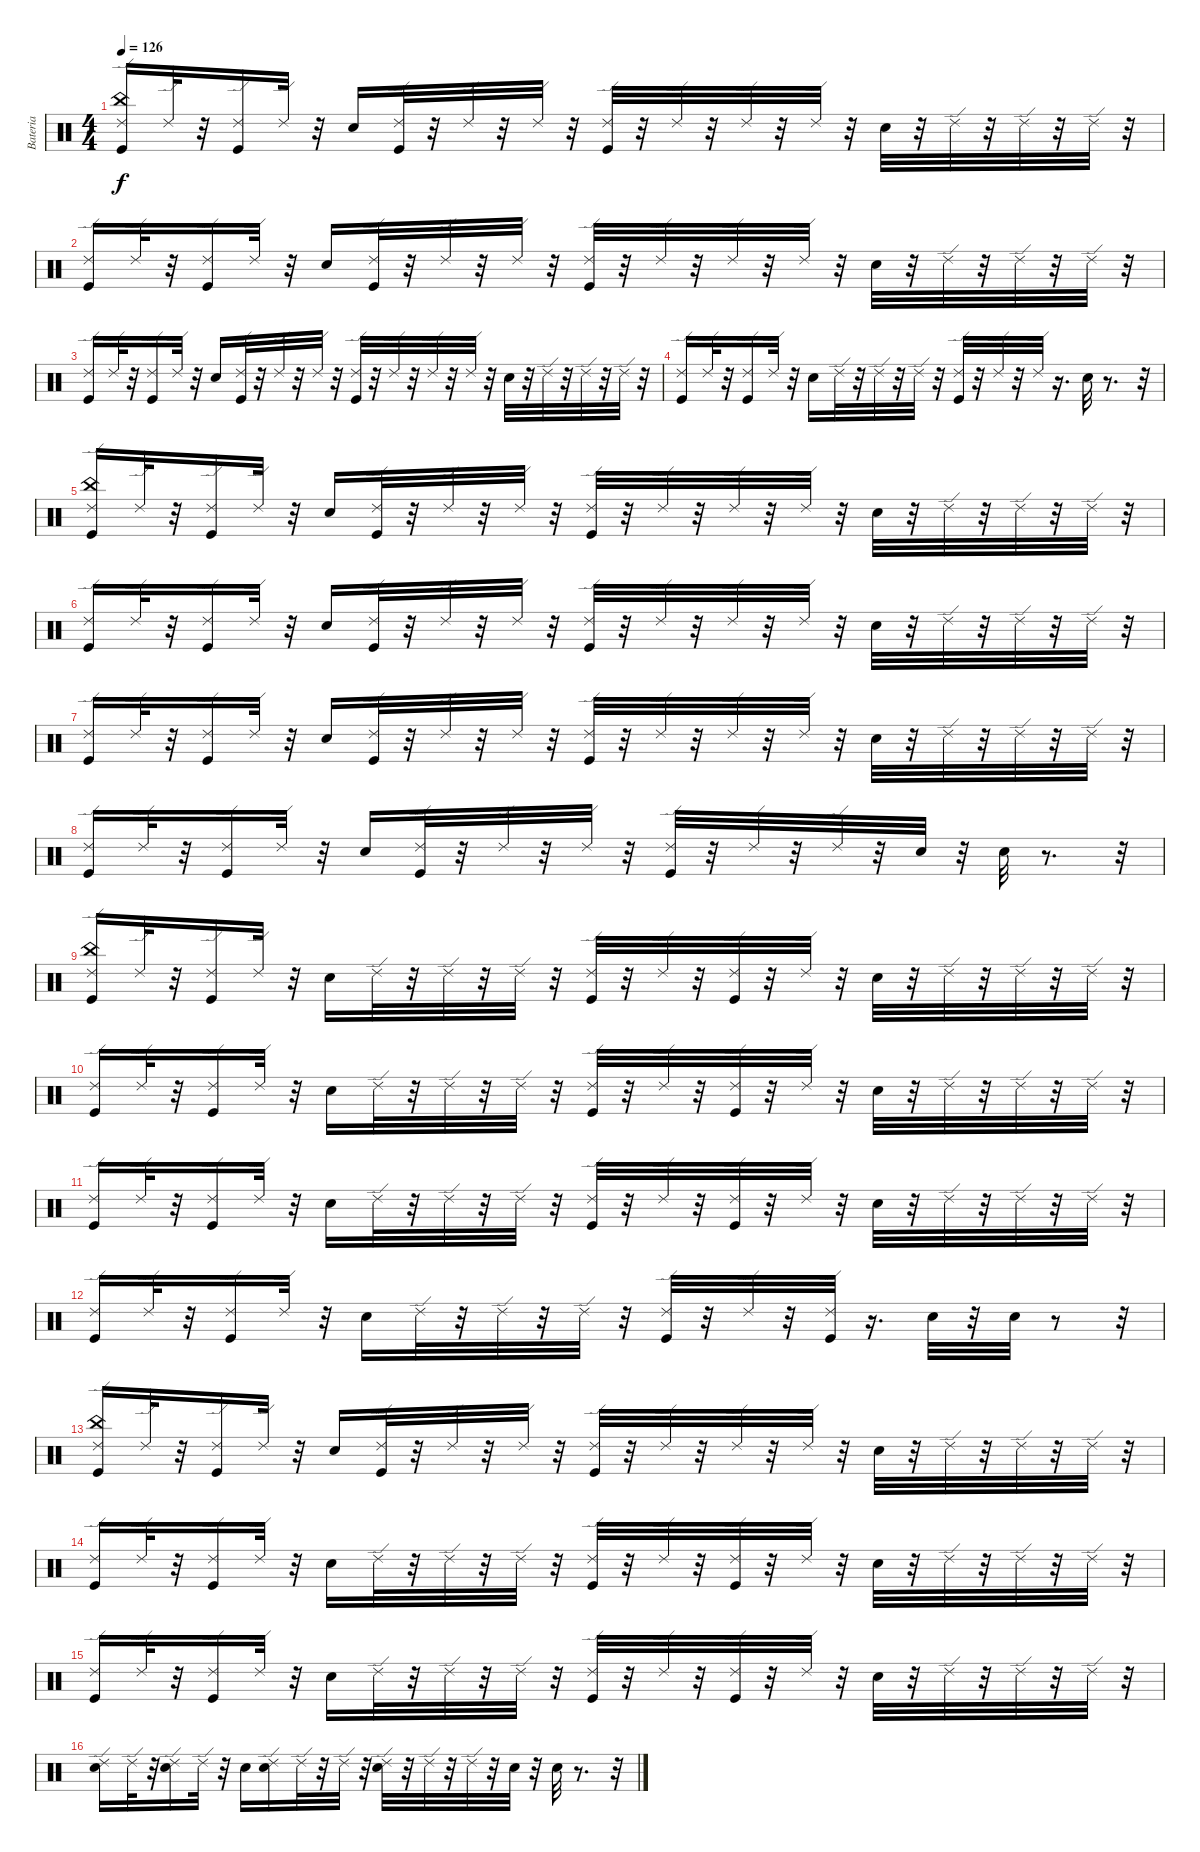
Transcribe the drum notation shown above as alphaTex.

\track ("Bateria" "Bateria") {instrument percussion}
\staff {score}
\articulation defaults
\ts (4 4)
\tempo 126
\clef neutral
\ks c
("Ride (edge) 2" "China (hit)" "Kick (hit)").16{dy f} "Ride (edge) 2".32 r.32 ("Ride (edge) 2" "Kick (hit)").16 "Ride (edge) 2".32 r.32 "Snare (hit) 2".16 ("Kick (hit)" "Ride (edge) 2").32 r.32 "Ride (edge) 2".32 r.32 "Ride (edge) 2".32 r.32 ("Kick (hit)" "Ride (edge) 2").32 r.32 "Ride (edge) 2".32 r.32 "Ride (edge) 2".32 r.32 "Ride (edge) 2".32 r.32 "Snare (hit) 2".32 r.32 "Ride (edge) 2".32 r.32 "Ride (edge) 2".32 r.32 "Ride (edge) 2".32 r.32 |
("Ride (edge) 2" "Kick (hit)").16 "Ride (edge) 2".32 r.32 ("Kick (hit)" "Ride (edge) 2").16 "Ride (edge) 2".32 r.32 "Snare (hit) 2".16 ("Ride (edge) 2" "Kick (hit)").32 r.32 "Ride (edge) 2".32 r.32 "Ride (edge) 2".32 r.32 ("Kick (hit)" "Ride (edge) 2").32 r.32 "Ride (edge) 2".32 r.32 "Ride (edge) 2".32 r.32 "Ride (edge) 2".32 r.32 "Snare (hit) 2".32 r.32 "Ride (edge) 2".32 r.32 "Ride (edge) 2".32 r.32 "Ride (edge) 2".32 r.32 |
("Kick (hit)" "Ride (edge) 2").16 "Ride (edge) 2".32 r.32 ("Kick (hit)" "Ride (edge) 2").16 "Ride (edge) 2".32 r.32 "Snare (hit) 2".16 ("Ride (edge) 2" "Kick (hit)").32 r.32 "Ride (edge) 2".32 r.32 "Ride (edge) 2".32 r.32 ("Ride (edge) 2" "Kick (hit)").32 r.32 "Ride (edge) 2".32 r.32 "Ride (edge) 2".32 r.32 "Ride (edge) 2".32 r.32 "Snare (hit) 2".32 r.32 "Ride (edge) 2".32 r.32 "Ride (edge) 2".32 r.32 "Ride (edge) 2".32 r.32 |
("Kick (hit)" "Ride (edge) 2").16 "Ride (edge) 2".32 r.32 ("Kick (hit)" "Ride (edge) 2").16 "Ride (edge) 2".32 r.32 "Snare (hit) 2".16 "Ride (edge) 2".32 r.32 "Ride (edge) 2".32 r.32 "Ride (edge) 2".32 r.32 ("Kick (hit)" "Ride (edge) 2").32 r.32 "Ride (edge) 2".32 r.32 "Ride (edge) 2".32 r.16{d} "Snare (hit) 2".32 r.8{d} r.32 |
("Ride (edge) 2" "China (hit)" "Kick (hit)").16 "Ride (edge) 2".32 r.32 ("Ride (edge) 2" "Kick (hit)").16 "Ride (edge) 2".32 r.32 "Snare (hit) 2".16 ("Kick (hit)" "Ride (edge) 2").32 r.32 "Ride (edge) 2".32 r.32 "Ride (edge) 2".32 r.32 ("Kick (hit)" "Ride (edge) 2").32 r.32 "Ride (edge) 2".32 r.32 "Ride (edge) 2".32 r.32 "Ride (edge) 2".32 r.32 "Snare (hit) 2".32 r.32 "Ride (edge) 2".32 r.32 "Ride (edge) 2".32 r.32 "Ride (edge) 2".32 r.32 |
("Ride (edge) 2" "Kick (hit)").16 "Ride (edge) 2".32 r.32 ("Kick (hit)" "Ride (edge) 2").16 "Ride (edge) 2".32 r.32 "Snare (hit) 2".16 ("Ride (edge) 2" "Kick (hit)").32 r.32 "Ride (edge) 2".32 r.32 "Ride (edge) 2".32 r.32 ("Kick (hit)" "Ride (edge) 2").32 r.32 "Ride (edge) 2".32 r.32 "Ride (edge) 2".32 r.32 "Ride (edge) 2".32 r.32 "Snare (hit) 2".32 r.32 "Ride (edge) 2".32 r.32 "Ride (edge) 2".32 r.32 "Ride (edge) 2".32 r.32 |
("Kick (hit)" "Ride (edge) 2").16 "Ride (edge) 2".32 r.32 ("Kick (hit)" "Ride (edge) 2").16 "Ride (edge) 2".32 r.32 "Snare (hit) 2".16 ("Ride (edge) 2" "Kick (hit)").32 r.32 "Ride (edge) 2".32 r.32 "Ride (edge) 2".32 r.32 ("Ride (edge) 2" "Kick (hit)").32 r.32 "Ride (edge) 2".32 r.32 "Ride (edge) 2".32 r.32 "Ride (edge) 2".32 r.32 "Snare (hit) 2".32 r.32 "Ride (edge) 2".32 r.32 "Ride (edge) 2".32 r.32 "Ride (edge) 2".32 r.32 |
("Kick (hit)" "Ride (edge) 2").16 "Ride (edge) 2".32 r.32 ("Kick (hit)" "Ride (edge) 2").16 "Ride (edge) 2".32 r.32 "Snare (hit) 2".16 ("Kick (hit)" "Ride (edge) 2").32 r.32 "Ride (edge) 2".32 r.32 "Ride (edge) 2".32 r.32 ("Kick (hit)" "Ride (edge) 2").32 r.32 "Ride (edge) 2".32 r.32 "Ride (edge) 2".32 r.32 "Snare (hit) 2".32 r.32 "Snare (hit) 2".32 r.8{d} r.32 |
("Ride (edge) 2" "China (hit)" "Kick (hit)").16 "Ride (edge) 2".32 r.32 ("Ride (edge) 2" "Kick (hit)").16 "Ride (edge) 2".32 r.32 "Snare (hit) 2".16 "Ride (edge) 2".32 r.32 "Ride (edge) 2".32 r.32 "Ride (edge) 2".32 r.32 ("Kick (hit)" "Ride (edge) 2").32 r.32 "Ride (edge) 2".32 r.32 ("Kick (hit)" "Ride (edge) 2").32 r.32 "Ride (edge) 2".32 r.32 "Snare (hit) 2".32 r.32 "Ride (edge) 2".32 r.32 "Ride (edge) 2".32 r.32 "Ride (edge) 2".32 r.32 |
("Ride (edge) 2" "Kick (hit)").16 "Ride (edge) 2".32 r.32 ("Kick (hit)" "Ride (edge) 2").16 "Ride (edge) 2".32 r.32 "Snare (hit) 2".16 "Ride (edge) 2".32 r.32 "Ride (edge) 2".32 r.32 "Ride (edge) 2".32 r.32 ("Kick (hit)" "Ride (edge) 2").32 r.32 "Ride (edge) 2".32 r.32 ("Kick (hit)" "Ride (edge) 2").32 r.32 "Ride (edge) 2".32 r.32 "Snare (hit) 2".32 r.32 "Ride (edge) 2".32 r.32 "Ride (edge) 2".32 r.32 "Ride (edge) 2".32 r.32 |
("Kick (hit)" "Ride (edge) 2").16 "Ride (edge) 2".32 r.32 ("Kick (hit)" "Ride (edge) 2").16 "Ride (edge) 2".32 r.32 "Snare (hit) 2".16 "Ride (edge) 2".32 r.32 "Ride (edge) 2".32 r.32 "Ride (edge) 2".32 r.32 ("Ride (edge) 2" "Kick (hit)").32 r.32 "Ride (edge) 2".32 r.32 ("Kick (hit)" "Ride (edge) 2").32 r.32 "Ride (edge) 2".32 r.32 "Snare (hit) 2".32 r.32 "Ride (edge) 2".32 r.32 "Ride (edge) 2".32 r.32 "Ride (edge) 2".32 r.32 |
("Kick (hit)" "Ride (edge) 2").16 "Ride (edge) 2".32 r.32 ("Kick (hit)" "Ride (edge) 2").16 "Ride (edge) 2".32 r.32 "Snare (hit) 2".16 "Ride (edge) 2".32 r.32 "Ride (edge) 2".32 r.32 "Ride (edge) 2".32 r.32 ("Kick (hit)" "Ride (edge) 2").32 r.32 "Ride (edge) 2".32 r.32 ("Kick (hit)" "Ride (edge) 2").32 r.16{d} "Snare (hit) 2".32 r.32 "Snare (hit) 2".32 r.8 r.32 |
("Ride (edge) 2" "China (hit)" "Kick (hit)").16 "Ride (edge) 2".32 r.32 ("Ride (edge) 2" "Kick (hit)").16 "Ride (edge) 2".32 r.32 "Snare (hit) 2".16 ("Kick (hit)" "Ride (edge) 2").32 r.32 "Ride (edge) 2".32 r.32 "Ride (edge) 2".32 r.32 ("Kick (hit)" "Ride (edge) 2").32 r.32 "Ride (edge) 2".32 r.32 "Ride (edge) 2".32 r.32 "Ride (edge) 2".32 r.32 "Snare (hit) 2".32 r.32 "Ride (edge) 2".32 r.32 "Ride (edge) 2".32 r.32 "Ride (edge) 2".32 r.32 |
("Ride (edge) 2" "Kick (hit)").16 "Ride (edge) 2".32 r.32 ("Kick (hit)" "Ride (edge) 2").16 "Ride (edge) 2".32 r.32 "Snare (hit) 2".16 "Ride (edge) 2".32 r.32 "Ride (edge) 2".32 r.32 "Ride (edge) 2".32 r.32 ("Kick (hit)" "Ride (edge) 2").32 r.32 "Ride (edge) 2".32 r.32 ("Kick (hit)" "Ride (edge) 2").32 r.32 "Ride (edge) 2".32 r.32 "Snare (hit) 2".32 r.32 "Ride (edge) 2".32 r.32 "Ride (edge) 2".32 r.32 "Ride (edge) 2".32 r.32 |
("Kick (hit)" "Ride (edge) 2").16 "Ride (edge) 2".32 r.32 ("Kick (hit)" "Ride (edge) 2").16 "Ride (edge) 2".32 r.32 "Snare (hit) 2".16 "Ride (edge) 2".32 r.32 "Ride (edge) 2".32 r.32 "Ride (edge) 2".32 r.32 ("Ride (edge) 2" "Kick (hit)").32 r.32 "Ride (edge) 2".32 r.32 ("Kick (hit)" "Ride (edge) 2").32 r.32 "Ride (edge) 2".32 r.32 "Snare (hit) 2".32 r.32 "Ride (edge) 2".32 r.32 "Ride (edge) 2".32 r.32 "Ride (edge) 2".32 r.32 |
("Snare (hit) 2" "Ride (edge) 2").16 "Ride (edge) 2".32 r.32 ("Snare (hit) 2" "Ride (edge) 2").16 "Ride (edge) 2".32 r.32 "Snare (hit) 2".16 ("Snare (hit) 2" "Ride (edge) 2").16 "Ride (edge) 2".32 r.32 "Ride (edge) 2".32 r.32 ("Snare (hit) 2" "Ride (edge) 2").32 r.32 "Ride (edge) 2".32 r.32 "Ride (edge) 2".32 r.32 "Snare (hit) 2".32 r.32 "Snare (hit) 2".32 r.8{d} r.32
